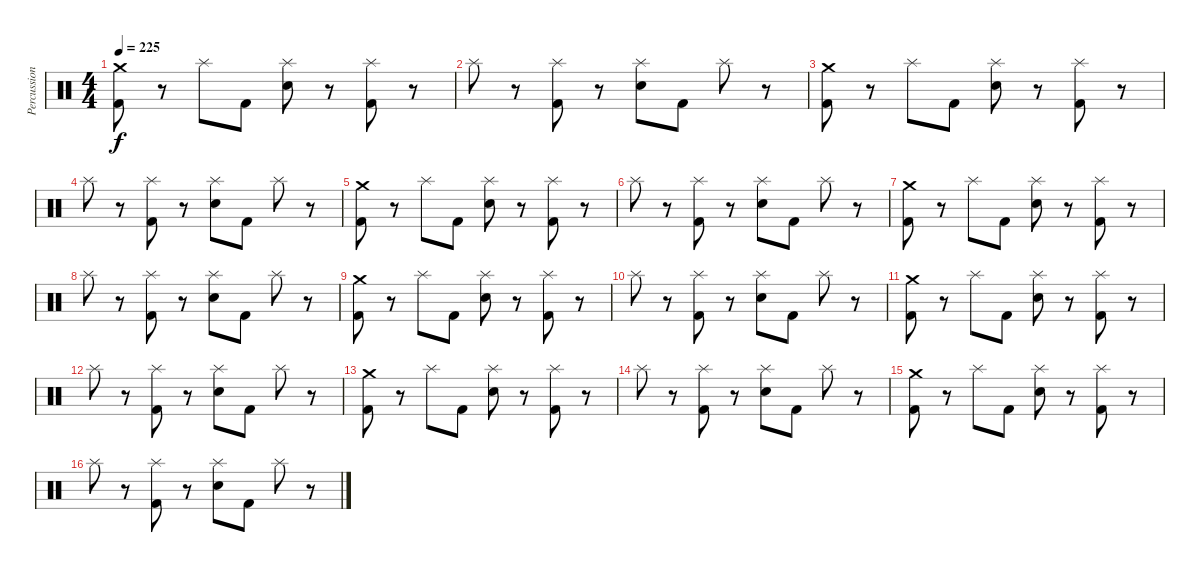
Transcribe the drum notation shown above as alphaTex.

\track ("Percussion" "Percussion") {instrument percussion}
\staff {score}
\articulation defaults
\ts (4 4)
\tempo 225
\clef neutral
\ks c
("Crash medium (hit)" "Kick (hit) 2").8{dy f} r.8 "Splash (hit)".8 "Kick (hit) 2".8 ("Splash (hit)" "Electric Snare (hit)").8 r.8 ("Splash (hit)" "Kick (hit) 2").8 r.8 |
"Splash (hit)".8 r.8 ("Splash (hit)" "Kick (hit) 2").8 r.8 ("Splash (hit)" "Electric Snare (hit)").8 "Kick (hit) 2".8 "Splash (hit)".8 r.8 |
("Crash medium (hit)" "Kick (hit) 2").8 r.8 "Splash (hit)".8 "Kick (hit) 2".8 ("Splash (hit)" "Electric Snare (hit)").8 r.8 ("Splash (hit)" "Kick (hit) 2").8 r.8 |
"Splash (hit)".8 r.8 ("Splash (hit)" "Kick (hit) 2").8 r.8 ("Splash (hit)" "Electric Snare (hit)").8 "Kick (hit) 2".8 "Splash (hit)".8 r.8 |
("Crash medium (hit)" "Kick (hit) 2").8 r.8 "Splash (hit)".8 "Kick (hit) 2".8 ("Splash (hit)" "Electric Snare (hit)").8 r.8 ("Splash (hit)" "Kick (hit) 2").8 r.8 |
"Splash (hit)".8 r.8 ("Splash (hit)" "Kick (hit) 2").8 r.8 ("Splash (hit)" "Electric Snare (hit)").8 "Kick (hit) 2".8 "Splash (hit)".8 r.8 |
("Crash medium (hit)" "Kick (hit) 2").8 r.8 "Splash (hit)".8 "Kick (hit) 2".8 ("Splash (hit)" "Electric Snare (hit)").8 r.8 ("Splash (hit)" "Kick (hit) 2").8 r.8 |
"Splash (hit)".8 r.8 ("Splash (hit)" "Kick (hit) 2").8 r.8 ("Splash (hit)" "Electric Snare (hit)").8 "Kick (hit) 2".8 "Splash (hit)".8 r.8 |
("Crash medium (hit)" "Kick (hit) 2").8 r.8 "Splash (hit)".8 "Kick (hit) 2".8 ("Splash (hit)" "Electric Snare (hit)").8 r.8 ("Splash (hit)" "Kick (hit) 2").8 r.8 |
"Splash (hit)".8 r.8 ("Splash (hit)" "Kick (hit) 2").8 r.8 ("Splash (hit)" "Electric Snare (hit)").8 "Kick (hit) 2".8 "Splash (hit)".8 r.8 |
("Crash medium (hit)" "Kick (hit) 2").8 r.8 "Splash (hit)".8 "Kick (hit) 2".8 ("Splash (hit)" "Electric Snare (hit)").8 r.8 ("Splash (hit)" "Kick (hit) 2").8 r.8 |
"Splash (hit)".8 r.8 ("Splash (hit)" "Kick (hit) 2").8 r.8 ("Splash (hit)" "Electric Snare (hit)").8 "Kick (hit) 2".8 "Splash (hit)".8 r.8 |
("Crash medium (hit)" "Kick (hit) 2").8 r.8 "Splash (hit)".8 "Kick (hit) 2".8 ("Splash (hit)" "Electric Snare (hit)").8 r.8 ("Splash (hit)" "Kick (hit) 2").8 r.8 |
"Splash (hit)".8 r.8 ("Splash (hit)" "Kick (hit) 2").8 r.8 ("Splash (hit)" "Electric Snare (hit)").8 "Kick (hit) 2".8 "Splash (hit)".8 r.8 |
("Crash medium (hit)" "Kick (hit) 2").8 r.8 "Splash (hit)".8 "Kick (hit) 2".8 ("Splash (hit)" "Electric Snare (hit)").8 r.8 ("Splash (hit)" "Kick (hit) 2").8 r.8 |
"Splash (hit)".8 r.8 ("Splash (hit)" "Kick (hit) 2").8 r.8 ("Splash (hit)" "Electric Snare (hit)").8 "Kick (hit) 2".8 "Splash (hit)".8 r.8
